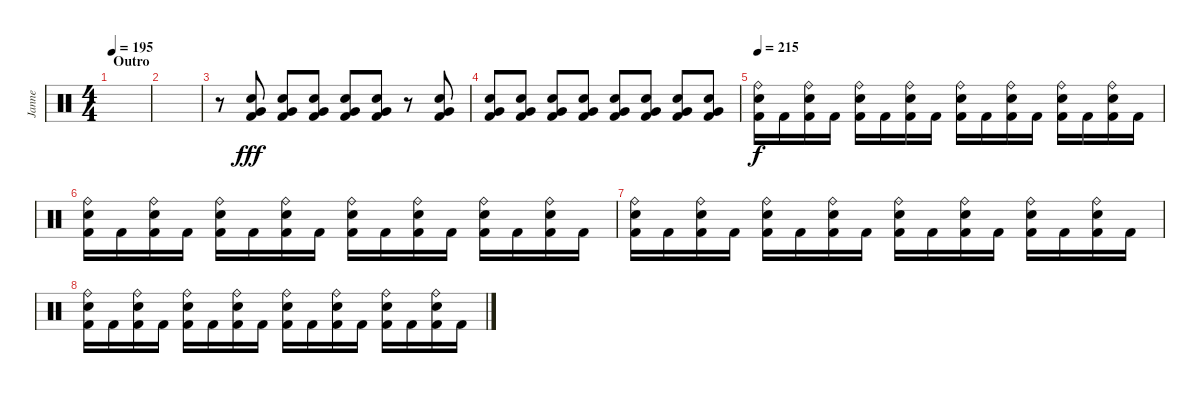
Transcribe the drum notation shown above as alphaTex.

\track ("Janne" "Janne") {instrument percussion}
\staff {score}
\articulation defaults
\ts (4 4)
\section ("" "Outro")
\tempo 195
\clef neutral
\ks c
|
|
r.8 ("Very Low Tom (hit)" "Electric Snare (hit)" "Kick (hit) 2").8{dy fff} ("Very Low Tom (hit)" "Electric Snare (hit)" "Kick (hit) 2").8 ("Very Low Tom (hit)" "Electric Snare (hit)" "Kick (hit) 2").8 ("Very Low Tom (hit)" "Electric Snare (hit)" "Kick (hit) 2").8 ("Very Low Tom (hit)" "Electric Snare (hit)" "Kick (hit) 2").8 r.8 ("Very Low Tom (hit)" "Electric Snare (hit)" "Kick (hit) 2").8 |
("Very Low Tom (hit)" "Electric Snare (hit)" "Kick (hit) 2").8 ("Very Low Tom (hit)" "Electric Snare (hit)" "Kick (hit) 2").8 ("Very Low Tom (hit)" "Electric Snare (hit)" "Kick (hit) 2").8 ("Very Low Tom (hit)" "Electric Snare (hit)" "Kick (hit) 2").8 ("Very Low Tom (hit)" "Electric Snare (hit)" "Kick (hit) 2").8 ("Very Low Tom (hit)" "Electric Snare (hit)" "Kick (hit) 2").8 ("Very Low Tom (hit)" "Electric Snare (hit)" "Kick (hit) 2").8 ("Very Low Tom (hit)" "Electric Snare (hit)" "Kick (hit) 2").8 |
\tempo 215
("Ride (bell)" "Electric Snare (hit)" "Kick (hit) 2").16{dy f} "Kick (hit) 2".16 ("Ride (bell)" "Electric Snare (hit)" "Kick (hit) 2").16 "Kick (hit) 2".16 ("Ride (bell)" "Electric Snare (hit)" "Kick (hit) 2").16 "Kick (hit) 2".16 ("Ride (bell)" "Electric Snare (hit)" "Kick (hit) 2").16 "Kick (hit) 2".16 ("Ride (bell)" "Electric Snare (hit)" "Kick (hit) 2").16 "Kick (hit) 2".16 ("Ride (bell)" "Electric Snare (hit)" "Kick (hit) 2").16 "Kick (hit) 2".16 ("Ride (bell)" "Electric Snare (hit)" "Kick (hit) 2").16 "Kick (hit) 2".16 ("Ride (bell)" "Electric Snare (hit)" "Kick (hit) 2").16 "Kick (hit) 2".16 |
("Ride (bell)" "Electric Snare (hit)" "Kick (hit) 2").16 "Kick (hit) 2".16 ("Ride (bell)" "Electric Snare (hit)" "Kick (hit) 2").16 "Kick (hit) 2".16 ("Ride (bell)" "Electric Snare (hit)" "Kick (hit) 2").16 "Kick (hit) 2".16 ("Ride (bell)" "Electric Snare (hit)" "Kick (hit) 2").16 "Kick (hit) 2".16 ("Ride (bell)" "Electric Snare (hit)" "Kick (hit) 2").16 "Kick (hit) 2".16 ("Ride (bell)" "Electric Snare (hit)" "Kick (hit) 2").16 "Kick (hit) 2".16 ("Ride (bell)" "Electric Snare (hit)" "Kick (hit) 2").16 "Kick (hit) 2".16 ("Ride (bell)" "Electric Snare (hit)" "Kick (hit) 2").16 "Kick (hit) 2".16 |
("Ride (bell)" "Electric Snare (hit)" "Kick (hit) 2").16 "Kick (hit) 2".16 ("Ride (bell)" "Electric Snare (hit)" "Kick (hit) 2").16 "Kick (hit) 2".16 ("Ride (bell)" "Electric Snare (hit)" "Kick (hit) 2").16 "Kick (hit) 2".16 ("Ride (bell)" "Electric Snare (hit)" "Kick (hit) 2").16 "Kick (hit) 2".16 ("Ride (bell)" "Electric Snare (hit)" "Kick (hit) 2").16 "Kick (hit) 2".16 ("Ride (bell)" "Electric Snare (hit)" "Kick (hit) 2").16 "Kick (hit) 2".16 ("Ride (bell)" "Electric Snare (hit)" "Kick (hit) 2").16 "Kick (hit) 2".16 ("Ride (bell)" "Electric Snare (hit)" "Kick (hit) 2").16 "Kick (hit) 2".16 |
("Ride (bell)" "Electric Snare (hit)" "Kick (hit) 2").16 "Kick (hit) 2".16 ("Ride (bell)" "Electric Snare (hit)" "Kick (hit) 2").16 "Kick (hit) 2".16 ("Ride (bell)" "Electric Snare (hit)" "Kick (hit) 2").16 "Kick (hit) 2".16 ("Ride (bell)" "Electric Snare (hit)" "Kick (hit) 2").16 "Kick (hit) 2".16 ("Ride (bell)" "Electric Snare (hit)" "Kick (hit) 2").16 "Kick (hit) 2".16 ("Ride (bell)" "Electric Snare (hit)" "Kick (hit) 2").16 "Kick (hit) 2".16 ("Ride (bell)" "Electric Snare (hit)" "Kick (hit) 2").16 "Kick (hit) 2".16 ("Ride (bell)" "Electric Snare (hit)" "Kick (hit) 2").16 "Kick (hit) 2".16
